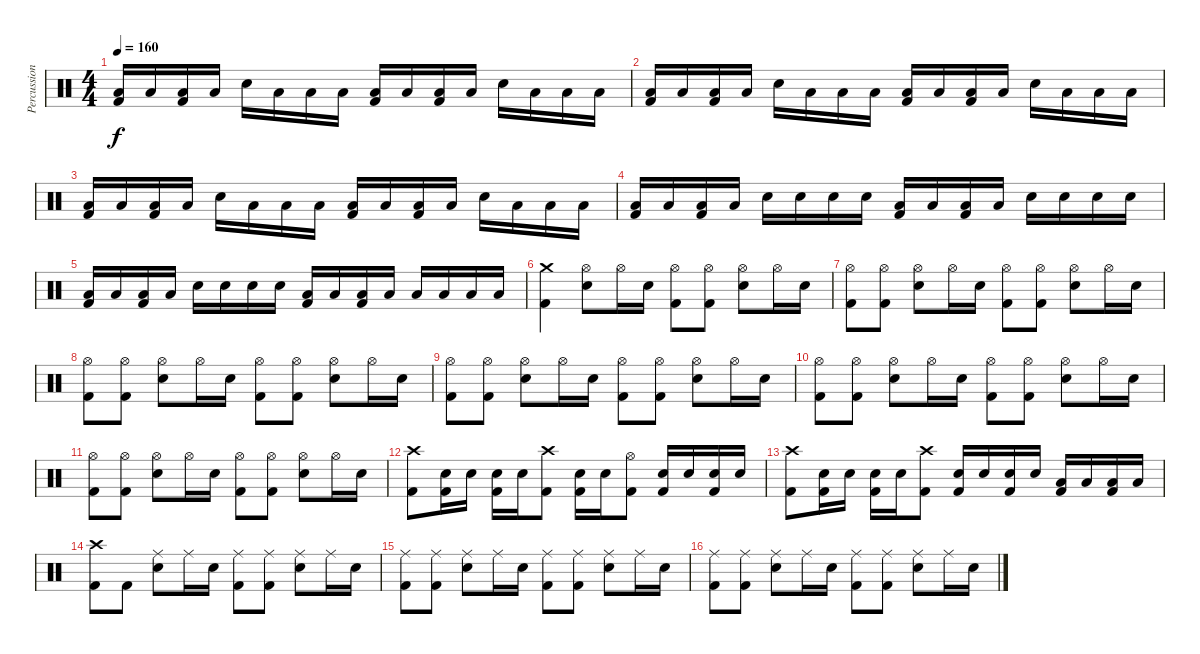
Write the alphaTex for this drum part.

\track ("Percussion" "Percussion") {instrument percussion}
\staff {score}
\articulation defaults
\ts (4 4)
\tempo 160
\clef neutral
\ks c
("Low Tom (hit)" "Kick (hit) 2").16{dy f} "Low Tom (hit)".16 ("Low Tom (hit)" "Kick (hit) 2").16 "Low Tom (hit)".16 "Electric Snare (hit)".16 "Low Tom (hit)".16 "Low Tom (hit)".16 "Low Tom (hit)".16 ("Low Tom (hit)" "Kick (hit) 2").16 "Low Tom (hit)".16 ("Low Tom (hit)" "Kick (hit) 2").16 "Low Tom (hit)".16 "Electric Snare (hit)".16 "Low Tom (hit)".16 "Low Tom (hit)".16 "Low Tom (hit)".16 |
("Low Tom (hit)" "Kick (hit) 2").16 "Low Tom (hit)".16 ("Low Tom (hit)" "Kick (hit) 2").16 "Low Tom (hit)".16 "Electric Snare (hit)".16 "Low Tom (hit)".16 "Low Tom (hit)".16 "Low Tom (hit)".16 ("Low Tom (hit)" "Kick (hit) 2").16 "Low Tom (hit)".16 ("Low Tom (hit)" "Kick (hit) 2").16 "Low Tom (hit)".16 "Electric Snare (hit)".16 "Low Tom (hit)".16 "Low Tom (hit)".16 "Low Tom (hit)".16 |
("Low Tom (hit)" "Kick (hit) 2").16 "Low Tom (hit)".16 ("Low Tom (hit)" "Kick (hit) 2").16 "Low Tom (hit)".16 "Electric Snare (hit)".16 "Low Tom (hit)".16 "Low Tom (hit)".16 "Low Tom (hit)".16 ("Low Tom (hit)" "Kick (hit) 2").16 "Low Tom (hit)".16 ("Low Tom (hit)" "Kick (hit) 2").16 "Low Tom (hit)".16 "Electric Snare (hit)".16 "Low Tom (hit)".16 "Low Tom (hit)".16 "Low Tom (hit)".16 |
("Low Tom (hit)" "Kick (hit) 2").16 "Low Tom (hit)".16 ("Low Tom (hit)" "Kick (hit) 2").16 "Low Tom (hit)".16 "Electric Snare (hit)".16 "Electric Snare (hit)".16 "Electric Snare (hit)".16 "Electric Snare (hit)".16 ("Low Tom (hit)" "Kick (hit) 2").16 "Low Tom (hit)".16 ("Low Tom (hit)" "Kick (hit) 2").16 "Low Tom (hit)".16 "Electric Snare (hit)".16 "Electric Snare (hit)".16 "Electric Snare (hit)".16 "Electric Snare (hit)".16 |
("Low Tom (hit)" "Kick (hit) 2").16 "Low Tom (hit)".16 ("Low Tom (hit)" "Kick (hit) 2").16 "Low Tom (hit)".16 "Electric Snare (hit)".16 "Electric Snare (hit)".16 "Electric Snare (hit)".16 "Electric Snare (hit)".16 ("Low Tom (hit)" "Kick (hit) 2").16 "Low Tom (hit)".16 ("Low Tom (hit)" "Kick (hit) 2").16 "Low Tom (hit)".16 "Low Floor Tom (hit)".16 "Low Floor Tom (hit)".16 "Low Floor Tom (hit)".16 "Low Floor Tom (hit)".16 |
("Crash medium (hit)" "Kick (hit) 2").4 ("Hi-Hat (open)" "Electric Snare (hit)").8 "Hi-Hat (open)".16 "Electric Snare (hit)".16 ("Hi-Hat (open)" "Kick (hit) 2").8 ("Hi-Hat (open)" "Kick (hit) 2").8 ("Hi-Hat (open)" "Electric Snare (hit)").8 "Hi-Hat (open)".16 "Electric Snare (hit)".16 |
("Hi-Hat (open)" "Kick (hit) 2").8 ("Hi-Hat (open)" "Kick (hit) 2").8 ("Hi-Hat (open)" "Electric Snare (hit)").8 "Hi-Hat (open)".16 "Electric Snare (hit)".16 ("Hi-Hat (open)" "Kick (hit) 2").8 ("Hi-Hat (open)" "Kick (hit) 2").8 ("Hi-Hat (open)" "Electric Snare (hit)").8 "Hi-Hat (open)".16 "Electric Snare (hit)".16 |
("Hi-Hat (open)" "Kick (hit) 2").8 ("Hi-Hat (open)" "Kick (hit) 2").8 ("Hi-Hat (open)" "Electric Snare (hit)").8 "Hi-Hat (open)".16 "Electric Snare (hit)".16 ("Hi-Hat (open)" "Kick (hit) 2").8 ("Hi-Hat (open)" "Kick (hit) 2").8 ("Hi-Hat (open)" "Electric Snare (hit)").8 "Hi-Hat (open)".16 "Electric Snare (hit)".16 |
("Hi-Hat (open)" "Kick (hit) 2").8 ("Hi-Hat (open)" "Kick (hit) 2").8 ("Hi-Hat (open)" "Electric Snare (hit)").8 "Hi-Hat (open)".16 "Electric Snare (hit)".16 ("Hi-Hat (open)" "Kick (hit) 2").8 ("Hi-Hat (open)" "Kick (hit) 2").8 ("Hi-Hat (open)" "Electric Snare (hit)").8 "Hi-Hat (open)".16 "Electric Snare (hit)".16 |
("Hi-Hat (open)" "Kick (hit) 2").8 ("Hi-Hat (open)" "Kick (hit) 2").8 ("Hi-Hat (open)" "Electric Snare (hit)").8 "Hi-Hat (open)".16 "Electric Snare (hit)".16 ("Hi-Hat (open)" "Kick (hit) 2").8 ("Hi-Hat (open)" "Kick (hit) 2").8 ("Hi-Hat (open)" "Electric Snare (hit)").8 "Hi-Hat (open)".16 "Electric Snare (hit)".16 |
("Hi-Hat (open)" "Kick (hit) 2").8 ("Hi-Hat (open)" "Kick (hit) 2").8 ("Hi-Hat (open)" "Electric Snare (hit)").8 "Hi-Hat (open)".16 "Electric Snare (hit)".16 ("Hi-Hat (open)" "Kick (hit) 2").8 ("Hi-Hat (open)" "Kick (hit) 2").8 ("Hi-Hat (open)" "Electric Snare (hit)").8 "Hi-Hat (open)".16 "Electric Snare (hit)".16 |
("Crash high (hit)" "Kick (hit) 2").8 ("Electric Snare (hit)" "Kick (hit) 2").16 "Electric Snare (hit)".16 ("Electric Snare (hit)" "Kick (hit) 2").16 "Electric Snare (hit)".16 ("Crash high (hit)" "Kick (hit) 2").8 ("Electric Snare (hit)" "Kick (hit) 2").16 "Electric Snare (hit)".16 ("Hi-Hat (open)" "Kick (hit) 2").8 ("Electric Snare (hit)" "Kick (hit) 2").16 "Electric Snare (hit)".16 ("Electric Snare (hit)" "Kick (hit) 2").16 "Electric Snare (hit)".16 |
("Crash high (hit)" "Kick (hit) 2").8 ("Electric Snare (hit)" "Kick (hit) 2").16 "Electric Snare (hit)".16 ("Electric Snare (hit)" "Kick (hit) 2").16 "Electric Snare (hit)".16 ("Crash high (hit)" "Kick (hit) 2").8 ("Electric Snare (hit)" "Kick (hit) 2").16 "Electric Snare (hit)".16 ("Electric Snare (hit)" "Kick (hit) 2").16 "Electric Snare (hit)".16 ("Low Tom (hit)" "Kick (hit) 2").16 "Low Tom (hit)".16 ("Low Tom (hit)" "Kick (hit) 2").16 "Low Tom (hit)".16 |
("Crash high (hit)" "Kick (hit) 2").8 "Kick (hit) 2".8 ("Ride (middle)" "Electric Snare (hit)").8 "Ride (middle)".16 "Electric Snare (hit)".16 ("Ride (middle)" "Kick (hit) 2").8 ("Ride (middle)" "Kick (hit) 2").8 ("Ride (middle)" "Electric Snare (hit)").8 "Ride (middle)".16 "Electric Snare (hit)".16 |
("Ride (middle)" "Kick (hit) 2").8 ("Ride (middle)" "Kick (hit) 2").8 ("Ride (middle)" "Electric Snare (hit)").8 "Ride (middle)".16 "Electric Snare (hit)".16 ("Ride (middle)" "Kick (hit) 2").8 ("Ride (middle)" "Kick (hit) 2").8 ("Ride (middle)" "Electric Snare (hit)").8 "Ride (middle)".16 "Electric Snare (hit)".16 |
("Ride (middle)" "Kick (hit) 2").8 ("Ride (middle)" "Kick (hit) 2").8 ("Ride (middle)" "Electric Snare (hit)").8 "Ride (middle)".16 "Electric Snare (hit)".16 ("Ride (middle)" "Kick (hit) 2").8 ("Ride (middle)" "Kick (hit) 2").8 ("Ride (middle)" "Electric Snare (hit)").8 "Ride (middle)".16 "Electric Snare (hit)".16
